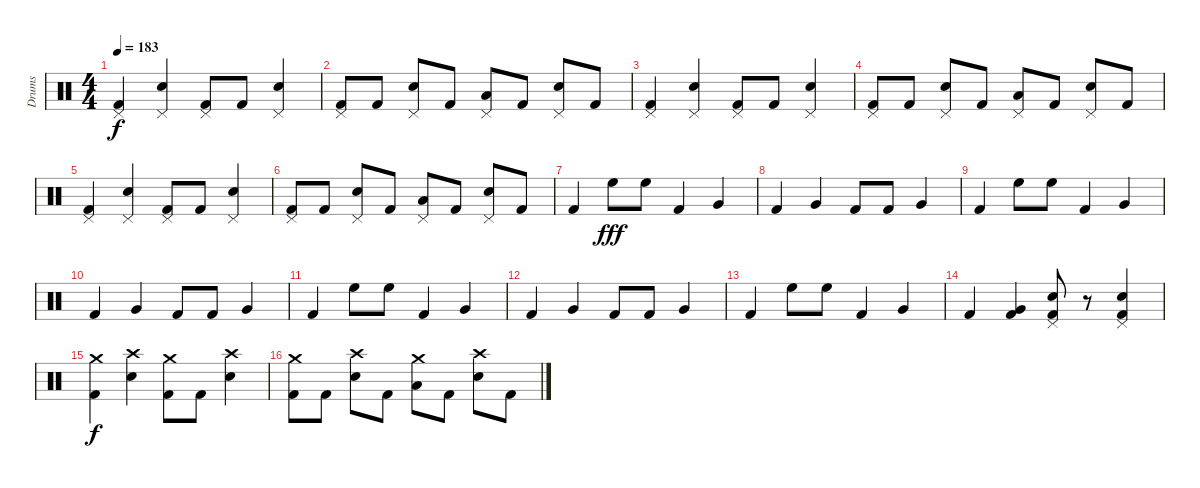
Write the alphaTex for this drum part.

\track ("Drums" "Drums") {instrument percussion}
\staff {score}
\articulation defaults
\ts (4 4)
\tempo 183
\clef neutral
\ks c
("Pedal Hi-Hat (hit)" "Kick (hit) 2").4{dy f} ("Pedal Hi-Hat (hit)" "Snare (hit) 2").4 ("Pedal Hi-Hat (hit)" "Kick (hit) 2").8 "Kick (hit) 2".8 ("Pedal Hi-Hat (hit)" "Snare (hit) 2").4 |
("Pedal Hi-Hat (hit)" "Kick (hit) 2").8 "Kick (hit) 2".8 ("Pedal Hi-Hat (hit)" "Snare (hit) 2").8 "Kick (hit) 2".8 ("Pedal Hi-Hat (hit)" "Low Tom (hit)").8 "Kick (hit) 2".8 ("Pedal Hi-Hat (hit)" "Snare (hit) 2").8 "Kick (hit) 2".8 |
("Pedal Hi-Hat (hit)" "Kick (hit) 2").4 ("Pedal Hi-Hat (hit)" "Snare (hit) 2").4 ("Pedal Hi-Hat (hit)" "Kick (hit) 2").8 "Kick (hit) 2".8 ("Pedal Hi-Hat (hit)" "Snare (hit) 2").4 |
("Pedal Hi-Hat (hit)" "Kick (hit) 2").8 "Kick (hit) 2".8 ("Pedal Hi-Hat (hit)" "Snare (hit) 2").8 "Kick (hit) 2".8 ("Pedal Hi-Hat (hit)" "Low Tom (hit)").8 "Kick (hit) 2".8 ("Pedal Hi-Hat (hit)" "Snare (hit) 2").8 "Kick (hit) 2".8 |
("Pedal Hi-Hat (hit)" "Kick (hit) 2").4 ("Pedal Hi-Hat (hit)" "Snare (hit) 2").4 ("Pedal Hi-Hat (hit)" "Kick (hit) 2").8 "Kick (hit) 2".8 ("Pedal Hi-Hat (hit)" "Snare (hit) 2").4 |
("Pedal Hi-Hat (hit)" "Kick (hit) 2").8 "Kick (hit) 2".8 ("Pedal Hi-Hat (hit)" "Snare (hit) 2").8 "Kick (hit) 2".8 ("Pedal Hi-Hat (hit)" "Low Tom (hit)").8 "Kick (hit) 2".8 ("Pedal Hi-Hat (hit)" "Snare (hit) 2").8 "Kick (hit) 2".8 |
"Kick (hit) 2".4 "High Floor Tom (hit)".8{dy fff} "High Floor Tom (hit)".8 "Kick (hit) 2".4 "Very Low Tom (hit)".4 |
"Kick (hit) 2".4 "Very Low Tom (hit)".4 "Kick (hit) 2".8 "Kick (hit) 2".8 "Very Low Tom (hit)".4 |
"Kick (hit) 2".4 "High Floor Tom (hit)".8 "High Floor Tom (hit)".8 "Kick (hit) 2".4 "Very Low Tom (hit)".4 |
"Kick (hit) 2".4 "Very Low Tom (hit)".4 "Kick (hit) 2".8 "Kick (hit) 2".8 "Very Low Tom (hit)".4 |
"Kick (hit) 2".4 "High Floor Tom (hit)".8 "High Floor Tom (hit)".8 "Kick (hit) 2".4 "Very Low Tom (hit)".4 |
"Kick (hit) 2".4 "Very Low Tom (hit)".4 "Kick (hit) 2".8 "Kick (hit) 2".8 "Very Low Tom (hit)".4 |
"Kick (hit) 2".4 "High Floor Tom (hit)".8 "High Floor Tom (hit)".8 "Kick (hit) 2".4 "Very Low Tom (hit)".4 |
"Kick (hit) 2".4 ("Very Low Tom (hit)" "Kick (hit) 2").4 ("Pedal Hi-Hat (hit)" "Kick (hit) 2" "Snare (hit) 2").8 r.8 ("Pedal Hi-Hat (hit)" "Kick (hit) 2" "Snare (hit) 2").4 |
("Kick (hit) 2" "Crash medium (hit)").4{dy f} ("Snare (hit) 2" "Crash high (hit)").4 ("Kick (hit) 2" "Crash medium (hit)").8 "Kick (hit) 2".8 ("Snare (hit) 2" "Crash high (hit)").4 |
("Kick (hit) 2" "Crash medium (hit)").8 "Kick (hit) 2".8 ("Snare (hit) 2" "Crash high (hit)").8 "Kick (hit) 2".8 ("Low Tom (hit)" "Crash medium (hit)").8 "Kick (hit) 2".8 ("Crash high (hit)" "Snare (hit) 2").8 "Kick (hit) 2".8
